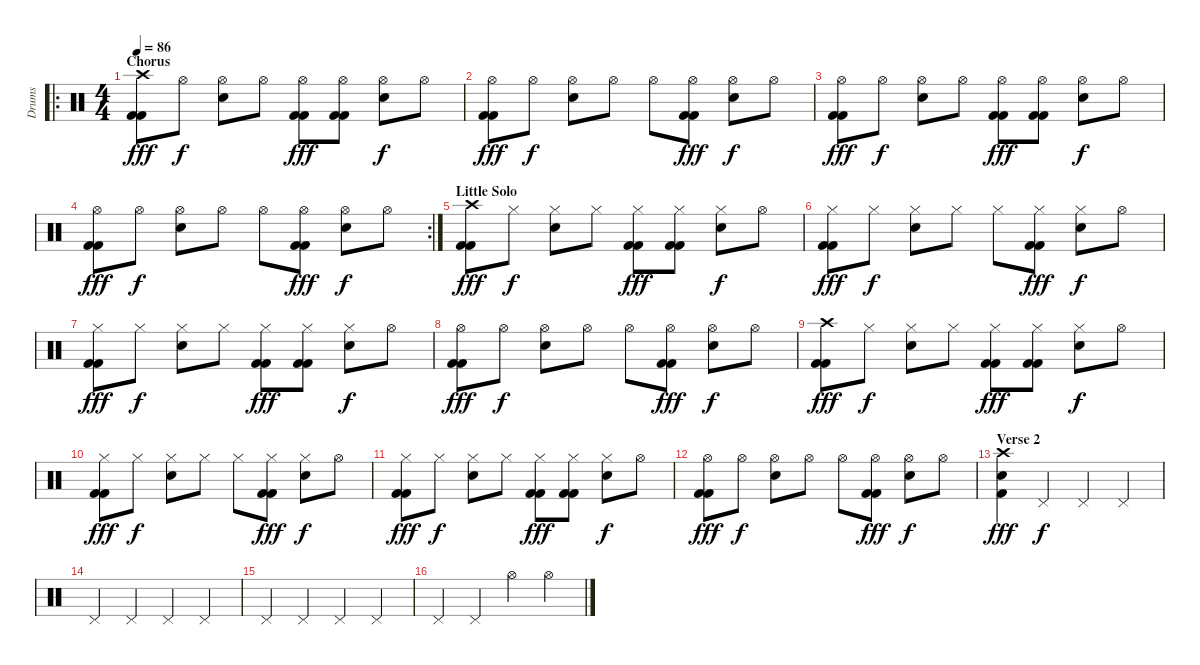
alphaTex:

\track ("Drums" "Drums") {instrument percussion}
\staff {score}
\articulation defaults
\ro
\ts (4 4)
\section ("" "Chorus")
\tempo 86
\clef neutral
\ks c
("Crash high (hit)" "Kick (hit) 2" "Kick (hit) 2").8{dy fff} "Hi-Hat (open)".8{dy f} ("Hi-Hat (open)" "Electric Snare (hit)").8 "Hi-Hat (open)".8 ("Hi-Hat (open)" "Kick (hit) 2" "Kick (hit) 2").8{dy fff} ("Hi-Hat (open)" "Kick (hit) 2" "Kick (hit) 2").8 ("Hi-Hat (open)" "Electric Snare (hit)").8{dy f} "Hi-Hat (open)".8 |
("Hi-Hat (open)" "Kick (hit) 2" "Kick (hit) 2").8{dy fff} "Hi-Hat (open)".8{dy f} ("Hi-Hat (open)" "Electric Snare (hit)").8 "Hi-Hat (open)".8 "Hi-Hat (open)".8 ("Hi-Hat (open)" "Kick (hit) 2" "Kick (hit) 2").8{dy fff} ("Hi-Hat (open)" "Electric Snare (hit)").8{dy f} "Hi-Hat (open)".8 |
("Hi-Hat (open)" "Kick (hit) 2" "Kick (hit) 2").8{dy fff} "Hi-Hat (open)".8{dy f} ("Hi-Hat (open)" "Electric Snare (hit)").8 "Hi-Hat (open)".8 ("Hi-Hat (open)" "Kick (hit) 2" "Kick (hit) 2").8{dy fff} ("Hi-Hat (open)" "Kick (hit) 2" "Kick (hit) 2").8 ("Hi-Hat (open)" "Electric Snare (hit)").8{dy f} "Hi-Hat (open)".8 |
\rc 2
("Hi-Hat (open)" "Kick (hit) 2" "Kick (hit) 2").8{dy fff} "Hi-Hat (open)".8{dy f} ("Hi-Hat (open)" "Electric Snare (hit)").8 "Hi-Hat (open)".8 "Hi-Hat (open)".8 ("Hi-Hat (open)" "Kick (hit) 2" "Kick (hit) 2").8{dy fff} ("Hi-Hat (open)" "Electric Snare (hit)").8{dy f} "Hi-Hat (open)".8 |
\section ("" "Little Solo")
("Crash high (hit)" "Kick (hit) 2" "Kick (hit) 2").8{dy fff} "Hi-Hat (closed)".8{dy f} ("Hi-Hat (closed)" "Electric Snare (hit)").8 "Hi-Hat (closed)".8 ("Hi-Hat (closed)" "Kick (hit) 2" "Kick (hit) 2").8{dy fff} ("Hi-Hat (closed)" "Kick (hit) 2" "Kick (hit) 2").8 ("Hi-Hat (closed)" "Electric Snare (hit)").8{dy f} "Hi-Hat (open)".8 |
("Hi-Hat (closed)" "Kick (hit) 2" "Kick (hit) 2").8{dy fff} "Hi-Hat (closed)".8{dy f} ("Hi-Hat (closed)" "Electric Snare (hit)").8 "Hi-Hat (closed)".8 "Hi-Hat (closed)".8 ("Hi-Hat (closed)" "Kick (hit) 2" "Kick (hit) 2").8{dy fff} ("Hi-Hat (closed)" "Electric Snare (hit)").8{dy f} "Hi-Hat (open)".8 |
("Hi-Hat (closed)" "Kick (hit) 2" "Kick (hit) 2").8{dy fff} "Hi-Hat (closed)".8{dy f} ("Hi-Hat (closed)" "Electric Snare (hit)").8 "Hi-Hat (closed)".8 ("Hi-Hat (closed)" "Kick (hit) 2" "Kick (hit) 2").8{dy fff} ("Hi-Hat (closed)" "Kick (hit) 2" "Kick (hit) 2").8 ("Hi-Hat (closed)" "Electric Snare (hit)").8{dy f} "Hi-Hat (open)".8 |
("Hi-Hat (open)" "Kick (hit) 2" "Kick (hit) 2").8{dy fff} "Hi-Hat (open)".8{dy f} ("Hi-Hat (open)" "Electric Snare (hit)").8 "Hi-Hat (open)".8 "Hi-Hat (open)".8 ("Hi-Hat (open)" "Kick (hit) 2" "Kick (hit) 2").8{dy fff} ("Hi-Hat (open)" "Electric Snare (hit)").8{dy f} "Hi-Hat (open)".8 |
("Crash high (hit)" "Kick (hit) 2" "Kick (hit) 2").8{dy fff} "Hi-Hat (closed)".8{dy f} ("Hi-Hat (closed)" "Electric Snare (hit)").8 "Hi-Hat (closed)".8 ("Hi-Hat (closed)" "Kick (hit) 2" "Kick (hit) 2").8{dy fff} ("Hi-Hat (closed)" "Kick (hit) 2" "Kick (hit) 2").8 ("Hi-Hat (closed)" "Electric Snare (hit)").8{dy f} "Hi-Hat (open)".8 |
("Hi-Hat (closed)" "Kick (hit) 2" "Kick (hit) 2").8{dy fff} "Hi-Hat (closed)".8{dy f} ("Hi-Hat (closed)" "Electric Snare (hit)").8 "Hi-Hat (closed)".8 "Hi-Hat (closed)".8 ("Hi-Hat (closed)" "Kick (hit) 2" "Kick (hit) 2").8{dy fff} ("Hi-Hat (closed)" "Electric Snare (hit)").8{dy f} "Hi-Hat (open)".8 |
("Hi-Hat (closed)" "Kick (hit) 2" "Kick (hit) 2").8{dy fff} "Hi-Hat (closed)".8{dy f} ("Hi-Hat (closed)" "Electric Snare (hit)").8 "Hi-Hat (closed)".8 ("Hi-Hat (closed)" "Kick (hit) 2" "Kick (hit) 2").8{dy fff} ("Hi-Hat (closed)" "Kick (hit) 2" "Kick (hit) 2").8 ("Hi-Hat (closed)" "Electric Snare (hit)").8{dy f} "Hi-Hat (open)".8 |
("Hi-Hat (open)" "Kick (hit) 2" "Kick (hit) 2").8{dy fff} "Hi-Hat (open)".8{dy f} ("Hi-Hat (open)" "Electric Snare (hit)").8 "Hi-Hat (open)".8 "Hi-Hat (open)".8 ("Hi-Hat (open)" "Kick (hit) 2" "Kick (hit) 2").8{dy fff} ("Hi-Hat (open)" "Electric Snare (hit)").8{dy f} "Hi-Hat (open)".8 |
\section ("" "Verse 2")
("Crash high (hit)" "Kick (hit) 2" "Electric Snare (hit)").4{dy fff} "Pedal Hi-Hat (hit)".4{dy f} "Pedal Hi-Hat (hit)".4 "Pedal Hi-Hat (hit)".4 |
"Pedal Hi-Hat (hit)".4 "Pedal Hi-Hat (hit)".4 "Pedal Hi-Hat (hit)".4 "Pedal Hi-Hat (hit)".4 |
"Pedal Hi-Hat (hit)".4 "Pedal Hi-Hat (hit)".4 "Pedal Hi-Hat (hit)".4 "Pedal Hi-Hat (hit)".4 |
"Pedal Hi-Hat (hit)".4 "Pedal Hi-Hat (hit)".4 "Hi-Hat (open)".4 "Hi-Hat (open)".4
